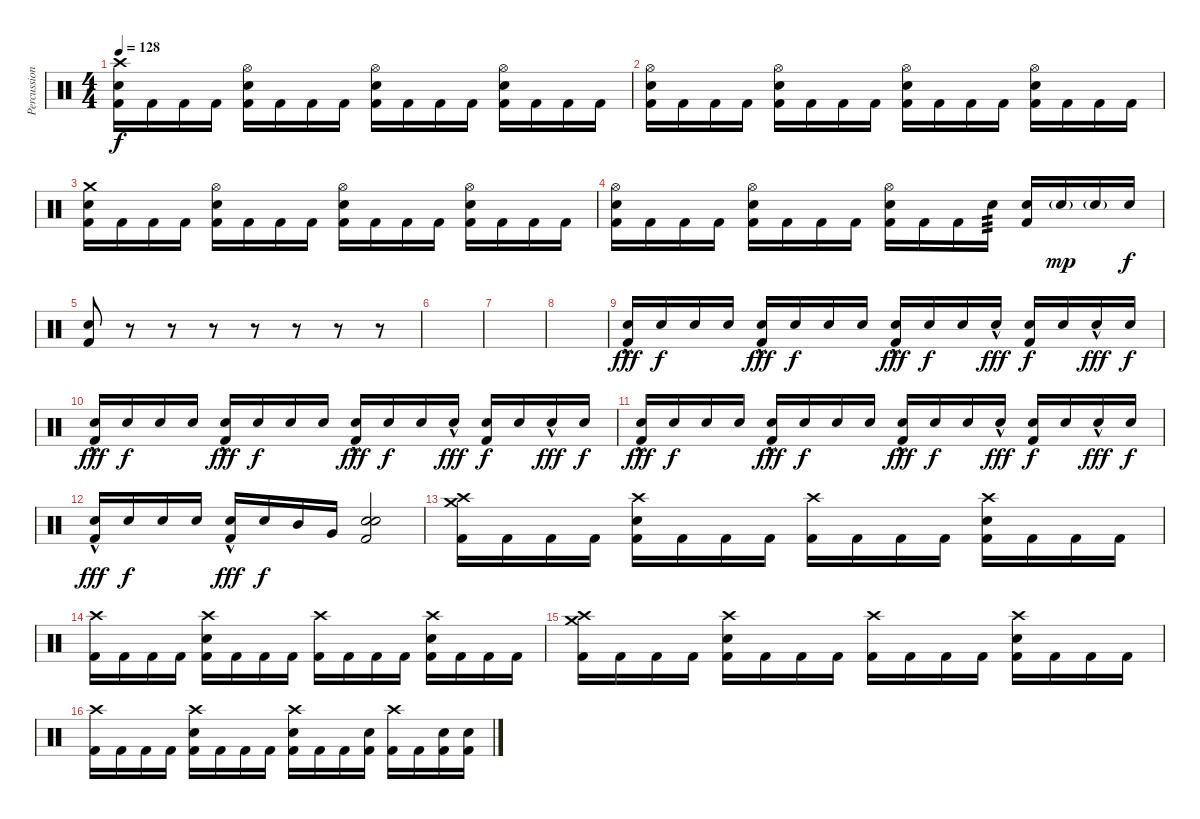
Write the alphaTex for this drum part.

\track ("Percussion" "Percussion") {instrument percussion}
\staff {score}
\articulation defaults
\ts (4 4)
\tempo 128
\clef neutral
\ks c
("Kick (hit) 2" "Electric Snare (hit)" "Crash high (hit)").16{dy f} "Kick (hit) 2".16 "Kick (hit) 2".16 "Kick (hit) 2".16 ("Kick (hit) 2" "Electric Snare (hit)" "Hi-Hat (open)").16 "Kick (hit) 2".16 "Kick (hit) 2".16 "Kick (hit) 2".16 ("Kick (hit) 2" "Electric Snare (hit)" "Hi-Hat (open)").16 "Kick (hit) 2".16 "Kick (hit) 2".16 "Kick (hit) 2".16 ("Kick (hit) 2" "Electric Snare (hit)" "Hi-Hat (open)").16 "Kick (hit) 2".16 "Kick (hit) 2".16 "Kick (hit) 2".16 |
("Kick (hit) 2" "Electric Snare (hit)" "Hi-Hat (open)").16 "Kick (hit) 2".16 "Kick (hit) 2".16 "Kick (hit) 2".16 ("Kick (hit) 2" "Electric Snare (hit)" "Hi-Hat (open)").16 "Kick (hit) 2".16 "Kick (hit) 2".16 "Kick (hit) 2".16 ("Kick (hit) 2" "Electric Snare (hit)" "Hi-Hat (open)").16 "Kick (hit) 2".16 "Kick (hit) 2".16 "Kick (hit) 2".16 ("Kick (hit) 2" "Electric Snare (hit)" "Hi-Hat (open)").16 "Kick (hit) 2".16 "Kick (hit) 2".16 "Kick (hit) 2".16 |
("Kick (hit) 2" "Electric Snare (hit)" "Crash medium (hit)").16 "Kick (hit) 2".16 "Kick (hit) 2".16 "Kick (hit) 2".16 ("Kick (hit) 2" "Electric Snare (hit)" "Hi-Hat (open)").16 "Kick (hit) 2".16 "Kick (hit) 2".16 "Kick (hit) 2".16 ("Kick (hit) 2" "Electric Snare (hit)" "Hi-Hat (open)").16 "Kick (hit) 2".16 "Kick (hit) 2".16 "Kick (hit) 2".16 ("Kick (hit) 2" "Electric Snare (hit)" "Hi-Hat (open)").16 "Kick (hit) 2".16 "Kick (hit) 2".16 "Kick (hit) 2".16 |
("Kick (hit) 2" "Electric Snare (hit)" "Hi-Hat (open)").16 "Kick (hit) 2".16 "Kick (hit) 2".16 "Kick (hit) 2".16 ("Kick (hit) 2" "Electric Snare (hit)" "Hi-Hat (open)").16 "Kick (hit) 2".16 "Kick (hit) 2".16 "Kick (hit) 2".16 ("Kick (hit) 2" "Electric Snare (hit)" "Hi-Hat (open)").16 "Kick (hit) 2".16 "Kick (hit) 2".16 "Electric Snare (hit)".16{tp 3} ("Kick (hit) 2" "Electric Snare (hit)").16 "Electric Snare (hit)"{g}.16{dy mp} "Electric Snare (hit)"{g}.16 "Electric Snare (hit)".16{dy f} |
("Kick (hit) 2" "Electric Snare (hit)").8 r.8 r.8 r.8 r.8 r.8 r.8 r.8 |
|
|
|
("Kick (hit) 2" "Electric Snare (hit)"{hac}).16{dy fff volume 7} "Electric Snare (hit)".16{dy f} "Electric Snare (hit)".16 "Electric Snare (hit)".16 ("Kick (hit) 2" "Electric Snare (hit)"{hac}).16{dy fff} "Electric Snare (hit)".16{dy f} "Electric Snare (hit)".16 "Electric Snare (hit)".16 ("Kick (hit) 2" "Electric Snare (hit)"{hac}).16{dy fff} "Electric Snare (hit)".16{dy f} "Electric Snare (hit)".16 "Electric Snare (hit)"{hac}.16{dy fff} ("Kick (hit) 2" "Electric Snare (hit)").16{dy f} "Electric Snare (hit)".16 "Electric Snare (hit)"{hac}.16{dy fff} "Electric Snare (hit)".16{dy f} |
("Kick (hit) 2" "Electric Snare (hit)"{hac}).16{dy fff} "Electric Snare (hit)".16{dy f} "Electric Snare (hit)".16 "Electric Snare (hit)".16 ("Kick (hit) 2" "Electric Snare (hit)"{hac}).16{dy fff} "Electric Snare (hit)".16{dy f} "Electric Snare (hit)".16 "Electric Snare (hit)".16 ("Kick (hit) 2" "Electric Snare (hit)"{hac}).16{dy fff} "Electric Snare (hit)".16{dy f} "Electric Snare (hit)".16 "Electric Snare (hit)"{hac}.16{dy fff} ("Kick (hit) 2" "Electric Snare (hit)").16{dy f} "Electric Snare (hit)".16 "Electric Snare (hit)"{hac}.16{dy fff} "Electric Snare (hit)".16{dy f} |
("Kick (hit) 2" "Electric Snare (hit)"{hac}).16{dy fff} "Electric Snare (hit)".16{dy f} "Electric Snare (hit)".16 "Electric Snare (hit)".16 ("Kick (hit) 2" "Electric Snare (hit)"{hac}).16{dy fff} "Electric Snare (hit)".16{dy f} "Electric Snare (hit)".16 "Electric Snare (hit)".16 ("Kick (hit) 2" "Electric Snare (hit)"{hac}).16{dy fff} "Electric Snare (hit)".16{dy f} "Electric Snare (hit)".16 "Electric Snare (hit)"{hac}.16{dy fff} ("Kick (hit) 2" "Electric Snare (hit)").16{dy f} "Electric Snare (hit)".16 "Electric Snare (hit)"{hac}.16{dy fff} "Electric Snare (hit)".16{dy f} |
("Kick (hit) 2" "Electric Snare (hit)"{hac}).16{dy fff} "Electric Snare (hit)".16{dy f} "Electric Snare (hit)".16 "Electric Snare (hit)".16 ("Kick (hit) 2" "Electric Snare (hit)"{hac}).16{dy fff} "Electric Snare (hit)".16{dy f} "Mid Tom (hit)".16 "Very Low Tom (hit)".16 ("Kick (hit) 2" "Electric Snare (hit)" "Electric Snare (hit)").2 |
("Kick (hit) 2" "Crash medium (hit)" "Crash high (hit)").16 "Kick (hit) 2".16 "Kick (hit) 2".16 "Kick (hit) 2".16 ("Kick (hit) 2" "Electric Snare (hit)" "Crash high (hit)").16 "Kick (hit) 2".16 "Kick (hit) 2".16 "Kick (hit) 2".16 ("Kick (hit) 2" "Crash high (hit)").16 "Kick (hit) 2".16 "Kick (hit) 2".16 "Kick (hit) 2".16 ("Kick (hit) 2" "Electric Snare (hit)" "Crash high (hit)").16 "Kick (hit) 2".16 "Kick (hit) 2".16 "Kick (hit) 2".16 |
("Kick (hit) 2" "Crash high (hit)").16 "Kick (hit) 2".16 "Kick (hit) 2".16 "Kick (hit) 2".16 ("Kick (hit) 2" "Electric Snare (hit)" "Crash high (hit)").16 "Kick (hit) 2".16 "Kick (hit) 2".16 "Kick (hit) 2".16 ("Kick (hit) 2" "Crash high (hit)").16 "Kick (hit) 2".16 "Kick (hit) 2".16 "Kick (hit) 2".16 ("Kick (hit) 2" "Electric Snare (hit)" "Crash high (hit)").16 "Kick (hit) 2".16 "Kick (hit) 2".16 "Kick (hit) 2".16 |
("Kick (hit) 2" "Crash medium (hit)" "Crash high (hit)").16 "Kick (hit) 2".16 "Kick (hit) 2".16 "Kick (hit) 2".16 ("Kick (hit) 2" "Electric Snare (hit)" "Crash high (hit)").16 "Kick (hit) 2".16 "Kick (hit) 2".16 "Kick (hit) 2".16 ("Kick (hit) 2" "Crash high (hit)").16 "Kick (hit) 2".16 "Kick (hit) 2".16 "Kick (hit) 2".16 ("Kick (hit) 2" "Electric Snare (hit)" "Crash high (hit)").16 "Kick (hit) 2".16 "Kick (hit) 2".16 "Kick (hit) 2".16 |
("Kick (hit) 2" "Crash high (hit)").16 "Kick (hit) 2".16 "Kick (hit) 2".16 "Kick (hit) 2".16 ("Kick (hit) 2" "Electric Snare (hit)" "Crash high (hit)").16 "Kick (hit) 2".16 "Kick (hit) 2".16 "Kick (hit) 2".16 ("Kick (hit) 2" "Electric Snare (hit)" "Crash high (hit)").16 "Kick (hit) 2".16 "Kick (hit) 2".16 ("Kick (hit) 2" "Electric Snare (hit)").16 ("Kick (hit) 2" "Crash high (hit)").16 "Kick (hit) 2".16 ("Kick (hit) 2" "Electric Snare (hit)").16 ("Kick (hit) 2" "Electric Snare (hit)").16
